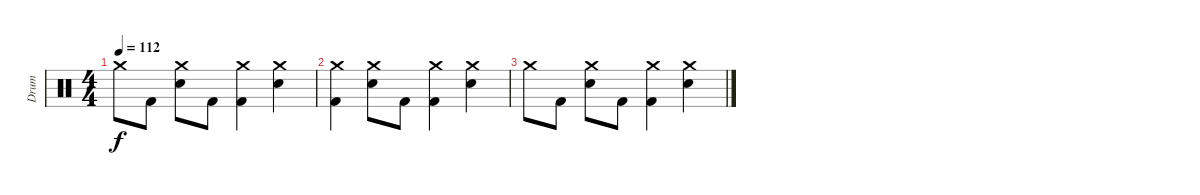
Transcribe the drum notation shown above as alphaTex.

\track ("Drum" "Drum") {instrument percussion}
\staff {score}
\articulation defaults
\ts (4 4)
\tempo 112
\clef neutral
\ks c "Crash medium (hit)".8{dy f} "Kick (hit) 2".8
("Crash medium (hit)" "Electric Snare (hit)").8 "Kick (hit) 2".8 ("Crash medium (hit)" "Kick (hit) 2").4 ("Crash medium (hit)" "Electric Snare (hit)").4 |
("Crash medium (hit)" "Kick (hit) 2").4 ("Crash medium (hit)" "Electric Snare (hit)").8 "Kick (hit) 2".8 ("Crash medium (hit)" "Kick (hit) 2").4 ("Crash medium (hit)" "Electric Snare (hit)").4 |
"Crash medium (hit)".8 "Kick (hit) 2".8 ("Crash medium (hit)" "Electric Snare (hit)").8 "Kick (hit) 2".8 ("Crash medium (hit)" "Kick (hit) 2").4 ("Crash medium (hit)" "Electric Snare (hit)").4
